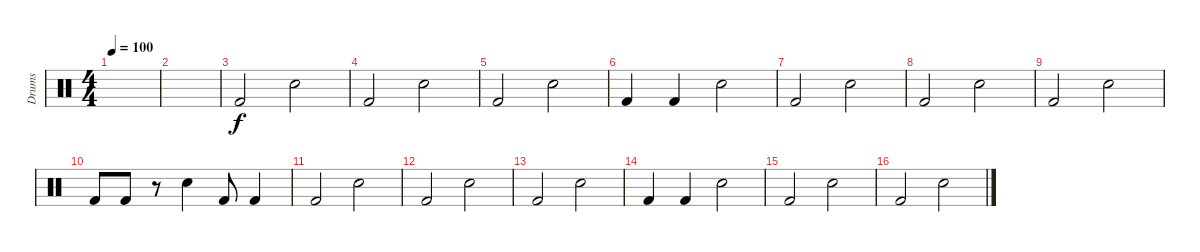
\track ("Drums" "Drums") {instrument percussion}
\staff {score}
\articulation defaults
\ts (4 4)
\tempo 100
\clef neutral
\ks c
|
|
"Kick (hit) 2".2 "Snare (hit) 2".2 |
"Kick (hit) 2".2 "Snare (hit) 2".2 |
"Kick (hit) 2".2 "Snare (hit) 2".2 |
"Kick (hit) 2".4 "Kick (hit) 2".4 "Snare (hit) 2".2 |
"Kick (hit) 2".2 "Snare (hit) 2".2 |
"Kick (hit) 2".2 "Snare (hit) 2".2 |
"Kick (hit) 2".2 "Snare (hit) 2".2 |
"Kick (hit) 2".8 "Kick (hit) 2".8 r.8 "Snare (hit) 2".4 "Kick (hit) 2".8 "Kick (hit) 2".4 |
"Kick (hit) 2".2 "Snare (hit) 2".2 |
"Kick (hit) 2".2 "Snare (hit) 2".2 |
"Kick (hit) 2".2 "Snare (hit) 2".2 |
"Kick (hit) 2".4 "Kick (hit) 2".4 "Snare (hit) 2".2 |
"Kick (hit) 2".2 "Snare (hit) 2".2 |
"Kick (hit) 2".2 "Snare (hit) 2".2
